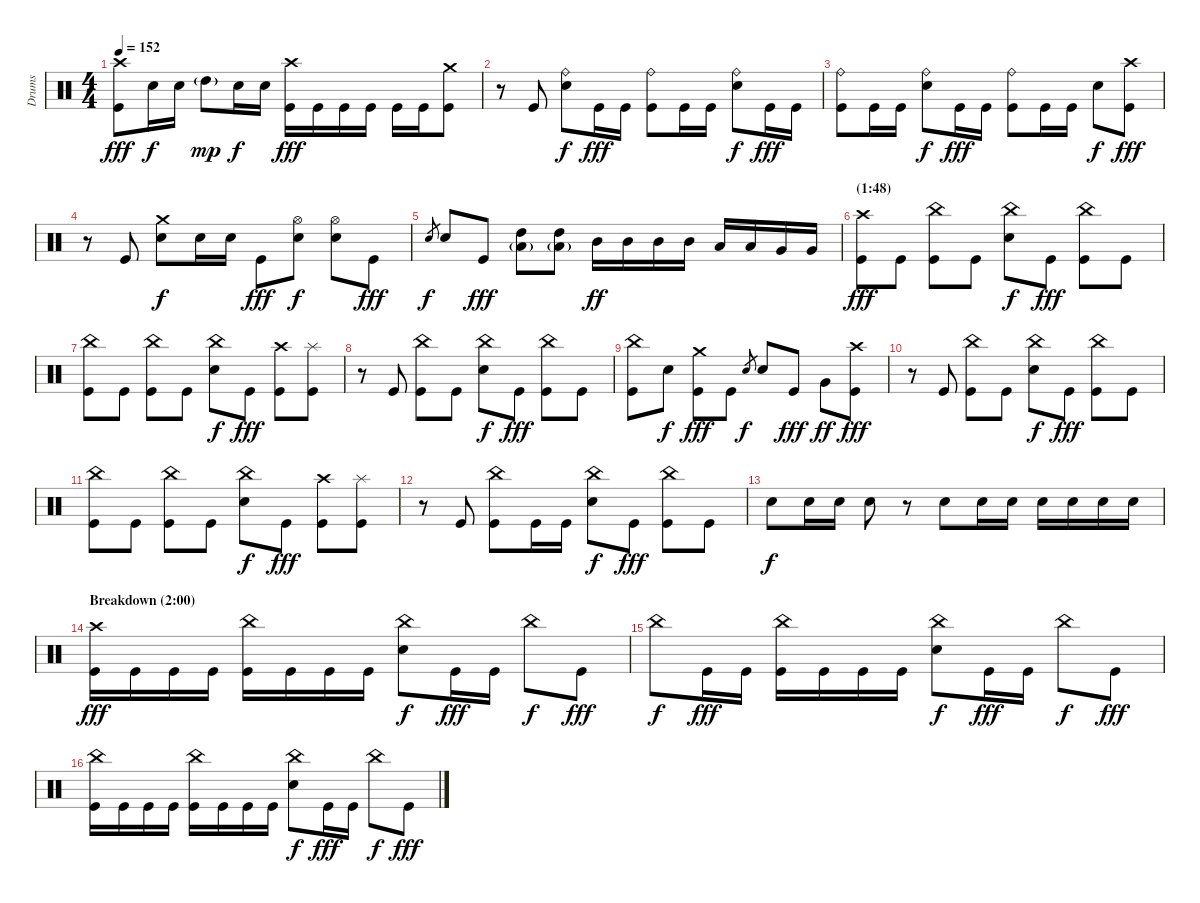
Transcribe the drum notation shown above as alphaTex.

\track ("Drums" "Drums") {instrument percussion}
\staff {score}
\articulation defaults
\ts (4 4)
\tempo 152
\clef neutral
\ks c
("Crash high (hit)" "Kick (hit)").8{dy fff} "Snare (hit) 2".16{dy f} "Snare (hit) 2".16 "High Tom (hit)"{g}.8{dy mp} "Snare (hit) 2".16{dy f} "Snare (hit) 2".16 ("Crash high (hit)" "Kick (hit)").16{dy fff} "Kick (hit)".16 "Kick (hit)".16 "Kick (hit)".16 "Kick (hit)".16 "Kick (hit)".16 ("Crash medium (hit)" "Kick (hit)").8 |
r.8 "Kick (hit)".8 ("Ride (bell)" "Snare (hit) 2").8{dy f} "Kick (hit)".16{dy fff} "Kick (hit)".16 ("Ride (bell)" "Kick (hit)").8 "Kick (hit)".16 "Kick (hit)".16 ("Ride (bell)" "Snare (hit) 2").8{dy f} "Kick (hit)".16{dy fff} "Kick (hit)".16 |
("Ride (bell)" "Kick (hit)").8 "Kick (hit)".16 "Kick (hit)".16 ("Ride (bell)" "Snare (hit) 2").8{dy f} "Kick (hit)".16{dy fff} "Kick (hit)".16 ("Ride (bell)" "Kick (hit)").8 "Kick (hit)".16 "Kick (hit)".16 "Snare (hit) 2".8{dy f} ("Crash high (hit)" "Kick (hit)").8{dy fff} |
r.8 "Kick (hit)".8 ("Crash medium (hit)" "Snare (hit) 2").8{dy f} "Snare (hit) 2".16 "Snare (hit) 2".16 "Kick (hit)".8{dy fff} ("Hi-Hat (open)" "Snare (hit) 2").8{dy f} ("Hi-Hat (open)" "Snare (hit) 2").8 "Kick (hit)".8{dy fff} |
"Snare (hit) 2".8{gr dy f} "Snare (hit) 2".8 "Kick (hit)".8{dy fff} ("High Tom (hit)" "Low Floor Tom (hit)"{g}).8 ("High Tom (hit)" "Low Floor Tom (hit)"{g}).8 "Mid Tom (hit)".16{dy ff} "Mid Tom (hit)".16 "Mid Tom (hit)".16 "Mid Tom (hit)".16 "Low Tom (hit)".16 "Low Tom (hit)".16 "Very Low Tom (hit)".16 "Very Low Tom (hit)".16 |
\section ("" "(1:48)")
("Crash high (hit)" "Kick (hit)").8{dy fff} "Kick (hit)".8 ("China (hit)" "Kick (hit)").8 "Kick (hit)".8 ("China (hit)" "Snare (hit) 2").8{dy f} "Kick (hit)".8{dy fff} ("China (hit)" "Kick (hit)").8 "Kick (hit)".8 |
("China (hit)" "Kick (hit)").8 "Kick (hit)".8 ("China (hit)" "Kick (hit)").8 "Kick (hit)".8 ("China (hit)" "Snare (hit) 2").8{dy f} "Kick (hit)".8{dy fff} ("Crash high (hit)" "Kick (hit)").8 ("Splash (hit)" "Kick (hit)").8 |
r.8 "Kick (hit)".8 ("China (hit)" "Kick (hit)").8 "Kick (hit)".8 ("China (hit)" "Snare (hit) 2").8{dy f} "Kick (hit)".8{dy fff} ("China (hit)" "Kick (hit)").8 "Kick (hit)".8 |
("China (hit)" "Kick (hit)").8 "Snare (hit) 2".8{dy f} ("Crash medium (hit)" "Kick (hit)").8{dy fff} "Kick (hit)".8 "Snare (hit) 2".8{gr dy f} "Snare (hit) 2".8 "Kick (hit)".8{dy fff} "Very Low Tom (hit)".8{dy ff} ("Crash high (hit)" "Kick (hit)").8{dy fff} |
r.8 "Kick (hit)".8 ("China (hit)" "Kick (hit)").8 "Kick (hit)".8 ("China (hit)" "Snare (hit) 2").8{dy f} "Kick (hit)".8{dy fff} ("China (hit)" "Kick (hit)").8 "Kick (hit)".8 |
("China (hit)" "Kick (hit)").8 "Kick (hit)".8 ("China (hit)" "Kick (hit)").8 "Kick (hit)".8 ("China (hit)" "Snare (hit) 2").8{dy f} "Kick (hit)".8{dy fff} ("Crash high (hit)" "Kick (hit)").8 ("Splash (hit)" "Kick (hit)").8 |
r.8 "Kick (hit)".8 ("China (hit)" "Kick (hit)").8 "Kick (hit)".16 "Kick (hit)".16 ("China (hit)" "Snare (hit) 2").8{dy f} "Kick (hit)".8{dy fff} ("China (hit)" "Kick (hit)").8 "Kick (hit)".8 |
"Snare (hit) 2".8{dy f} "Snare (hit) 2".16 "Snare (hit) 2".16 "Snare (hit) 2".8 r.8 "Snare (hit) 2".8 "Snare (hit) 2".16 "Snare (hit) 2".16 "Snare (hit) 2".16 "Snare (hit) 2".16 "Snare (hit) 2".16 "Snare (hit) 2".16 |
\section ("" "Breakdown (2:00)")
("Crash high (hit)" "Kick (hit)").16{dy fff} "Kick (hit)".16 "Kick (hit)".16 "Kick (hit)".16 ("China (hit)" "Kick (hit)").16 "Kick (hit)".16 "Kick (hit)".16 "Kick (hit)".16 ("China (hit)" "Snare (hit) 2").8{dy f} "Kick (hit)".16{dy fff} "Kick (hit)".16 "China (hit)".8{dy f} "Kick (hit)".8{dy fff} |
"China (hit)".8{dy f} "Kick (hit)".16{dy fff} "Kick (hit)".16 ("China (hit)" "Kick (hit)").16 "Kick (hit)".16 "Kick (hit)".16 "Kick (hit)".16 ("China (hit)" "Snare (hit) 2").8{dy f} "Kick (hit)".16{dy fff} "Kick (hit)".16 "China (hit)".8{dy f} "Kick (hit)".8{dy fff} |
("China (hit)" "Kick (hit)").16 "Kick (hit)".16 "Kick (hit)".16 "Kick (hit)".16 ("China (hit)" "Kick (hit)").16 "Kick (hit)".16 "Kick (hit)".16 "Kick (hit)".16 ("China (hit)" "Snare (hit) 2").8{dy f} "Kick (hit)".16{dy fff} "Kick (hit)".16 "China (hit)".8{dy f} "Kick (hit)".8{dy fff}
